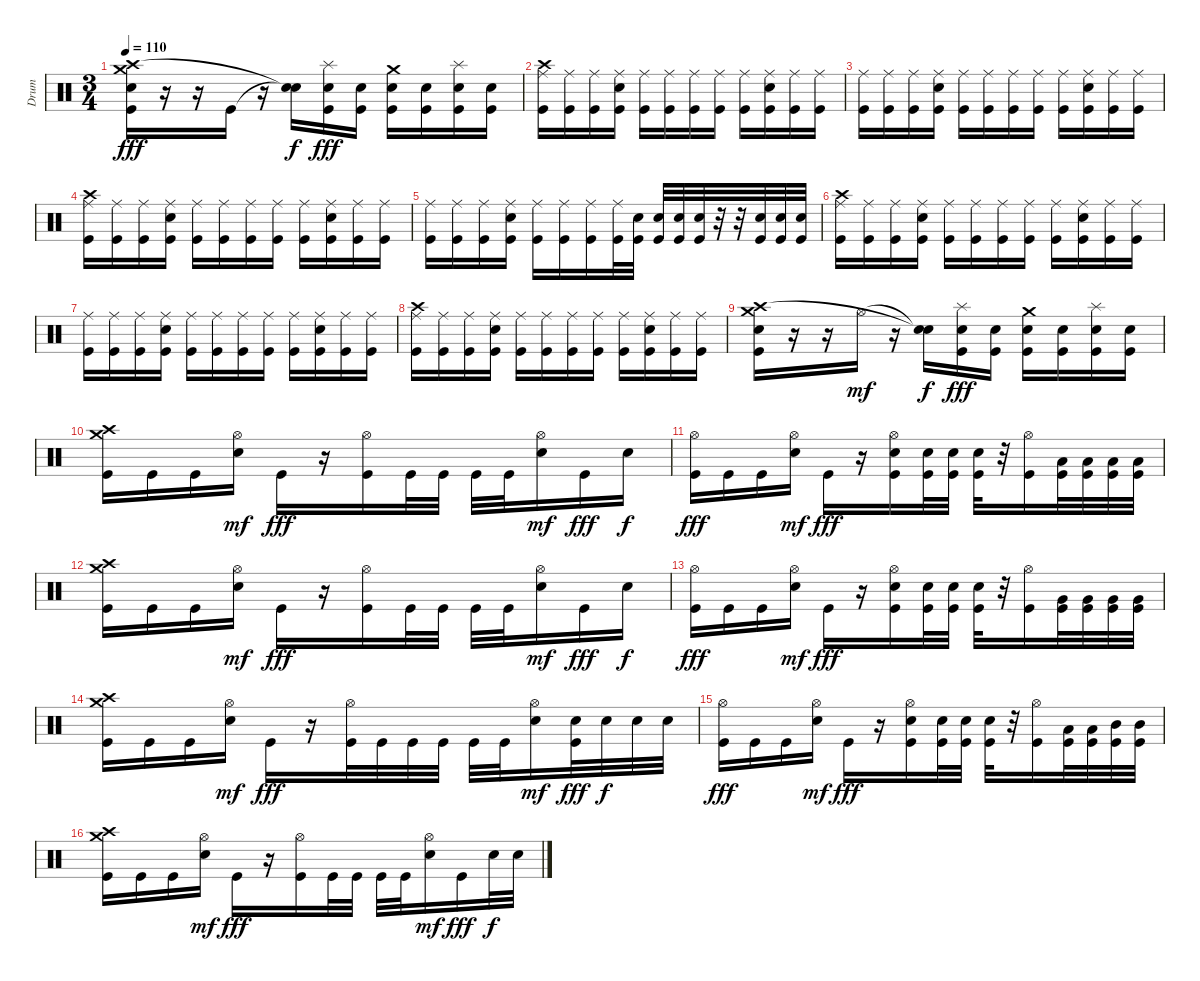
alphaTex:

\track ("Drum" "Drum") {instrument percussion}
\staff {score}
\articulation defaults
\ts (3 4)
\tempo 110
\clef neutral
\ks c
("Crash medium (hit)" "Crash high (hit)" "Electric Snare (hit)" "Kick (hit)").16{dy fff} r.16 r.16 "Kick (hit)".16 r.16 ("Snare (hit)"{t} "Snare (hit)"{t}).16{dy f} ("Splash (hit)" "Electric Snare (hit)" "Kick (hit)").16{dy fff} ("Electric Snare (hit)" "Kick (hit)").16 ("Crash medium (hit)" "Electric Snare (hit)" "Kick (hit)").16 ("Electric Snare (hit)" "Kick (hit)").16 ("Splash (hit)" "Electric Snare (hit)" "Kick (hit)").16 ("Electric Snare (hit)" "Kick (hit)").16 |
("Ride (middle)" "Crash high (hit)" "Kick (hit)").16 ("Ride (middle)" "Kick (hit)").16 ("Ride (middle)" "Kick (hit)").16 ("Ride (middle)" "Electric Snare (hit)" "Kick (hit)").16 ("Ride (middle)" "Kick (hit)").16 ("Ride (middle)" "Kick (hit)").16 ("Ride (middle)" "Kick (hit)").16 ("Ride (middle)" "Kick (hit)").16 ("Ride (middle)" "Kick (hit)").16 ("Ride (middle)" "Electric Snare (hit)" "Kick (hit)").16 ("Ride (middle)" "Kick (hit)").16 ("Ride (middle)" "Kick (hit)").16 |
("Ride (middle)" "Kick (hit)").16 ("Ride (middle)" "Kick (hit)").16 ("Ride (middle)" "Kick (hit)").16 ("Ride (middle)" "Electric Snare (hit)" "Kick (hit)").16 ("Ride (middle)" "Kick (hit)").16 ("Ride (middle)" "Kick (hit)").16 ("Ride (middle)" "Kick (hit)").16 ("Ride (middle)" "Kick (hit)").16 ("Ride (middle)" "Kick (hit)").16 ("Ride (middle)" "Electric Snare (hit)" "Kick (hit)").16 ("Ride (middle)" "Kick (hit)").16 ("Ride (middle)" "Kick (hit)").16 |
("Ride (middle)" "Crash high (hit)" "Kick (hit)").16 ("Ride (middle)" "Kick (hit)").16 ("Ride (middle)" "Kick (hit)").16 ("Ride (middle)" "Electric Snare (hit)" "Kick (hit)").16 ("Ride (middle)" "Kick (hit)").16 ("Ride (middle)" "Kick (hit)").16 ("Ride (middle)" "Kick (hit)").16 ("Ride (middle)" "Kick (hit)").16 ("Ride (middle)" "Kick (hit)").16 ("Ride (middle)" "Electric Snare (hit)" "Kick (hit)").16 ("Ride (middle)" "Kick (hit)").16 ("Ride (middle)" "Kick (hit)").16 |
("Ride (middle)" "Kick (hit)").16 ("Ride (middle)" "Kick (hit)").16 ("Ride (middle)" "Kick (hit)").16 ("Ride (middle)" "Electric Snare (hit)" "Kick (hit)").16 ("Ride (middle)" "Kick (hit)").16 ("Ride (middle)" "Kick (hit)").16 ("Ride (middle)" "Kick (hit)").16 ("Ride (middle)" "Kick (hit)").32 ("Electric Snare (hit)" "Kick (hit)").32 ("Electric Snare (hit)" "Kick (hit)").32 ("Electric Snare (hit)" "Kick (hit)").32 ("Electric Snare (hit)" "Kick (hit)").32 r.32 r.32 ("Electric Snare (hit)" "Kick (hit)").32 ("Electric Snare (hit)" "Kick (hit)").32 ("Electric Snare (hit)" "Kick (hit)").32 |
("Ride (middle)" "Crash high (hit)" "Kick (hit)").16 ("Ride (middle)" "Kick (hit)").16 ("Ride (middle)" "Kick (hit)").16 ("Ride (middle)" "Electric Snare (hit)" "Kick (hit)").16 ("Ride (middle)" "Kick (hit)").16 ("Ride (middle)" "Kick (hit)").16 ("Ride (middle)" "Kick (hit)").16 ("Ride (middle)" "Kick (hit)").16 ("Ride (middle)" "Kick (hit)").16 ("Ride (middle)" "Electric Snare (hit)" "Kick (hit)").16 ("Ride (middle)" "Kick (hit)").16 ("Ride (middle)" "Kick (hit)").16 |
("Ride (middle)" "Kick (hit)").16 ("Ride (middle)" "Kick (hit)").16 ("Ride (middle)" "Kick (hit)").16 ("Ride (middle)" "Electric Snare (hit)" "Kick (hit)").16 ("Ride (middle)" "Kick (hit)").16 ("Ride (middle)" "Kick (hit)").16 ("Ride (middle)" "Kick (hit)").16 ("Ride (middle)" "Kick (hit)").16 ("Ride (middle)" "Kick (hit)").16 ("Ride (middle)" "Electric Snare (hit)" "Kick (hit)").16 ("Ride (middle)" "Kick (hit)").16 ("Ride (middle)" "Kick (hit)").16 |
("Ride (middle)" "Crash high (hit)" "Kick (hit)").16 ("Ride (middle)" "Kick (hit)").16 ("Ride (middle)" "Kick (hit)").16 ("Ride (middle)" "Electric Snare (hit)" "Kick (hit)").16 ("Ride (middle)" "Kick (hit)").16 ("Ride (middle)" "Kick (hit)").16 ("Ride (middle)" "Kick (hit)").16 ("Ride (middle)" "Kick (hit)").16 ("Ride (middle)" "Kick (hit)").16 ("Ride (middle)" "Electric Snare (hit)" "Kick (hit)").16 ("Ride (middle)" "Kick (hit)").16 ("Ride (middle)" "Kick (hit)").16 |
("Crash medium (hit)" "Crash high (hit)" "Electric Snare (hit)" "Kick (hit)").16 r.16 r.16 "Hi-Hat (open)".16{dy mf} r.16 ("Snare (hit)"{t} "Snare (hit)"{t}).16{dy f} ("Splash (hit)" "Electric Snare (hit)" "Kick (hit)").16{dy fff} ("Electric Snare (hit)" "Kick (hit)").16 ("Crash medium (hit)" "Electric Snare (hit)" "Kick (hit)").16 ("Electric Snare (hit)" "Kick (hit)").16 ("Splash (hit)" "Electric Snare (hit)" "Kick (hit)").16 ("Electric Snare (hit)" "Kick (hit)").16 |
("Crash medium (hit)" "Crash high (hit)" "Kick (hit)").16 "Kick (hit)".16 "Kick (hit)".16 ("Hi-Hat (open)" "Electric Snare (hit)").16{dy mf} "Kick (hit)".16{dy fff} r.16 ("Hi-Hat (open)" "Kick (hit)").16 "Kick (hit)".32 "Kick (hit)".32 "Kick (hit)".32 "Kick (hit)".32 ("Hi-Hat (open)" "Electric Snare (hit)").16{dy mf} "Kick (hit)".16{dy fff} "Electric Snare (hit)".16{dy f} |
("Hi-Hat (open)" "Kick (hit)").16{dy fff} "Kick (hit)".16 "Kick (hit)".16 ("Hi-Hat (open)" "Electric Snare (hit)").16{dy mf} "Kick (hit)".16{dy fff} r.16 ("Hi-Hat (open)" "Electric Snare (hit)" "Kick (hit)").16 ("Electric Snare (hit)" "Kick (hit)").32 ("Electric Snare (hit)" "Kick (hit)").32 ("Electric Snare (hit)" "Kick (hit)").32 r.32 ("Hi-Hat (open)" "Kick (hit)").16 ("Low Floor Tom (hit)" "Kick (hit)").32 ("Low Floor Tom (hit)" "Kick (hit)").32 ("Low Floor Tom (hit)" "Kick (hit)").32 ("Low Floor Tom (hit)" "Kick (hit)").32 |
("Crash medium (hit)" "Crash high (hit)" "Kick (hit)").16 "Kick (hit)".16 "Kick (hit)".16 ("Hi-Hat (open)" "Electric Snare (hit)").16{dy mf} "Kick (hit)".16{dy fff} r.16 ("Hi-Hat (open)" "Kick (hit)").16 "Kick (hit)".32 "Kick (hit)".32 "Kick (hit)".32 "Kick (hit)".32 ("Hi-Hat (open)" "Electric Snare (hit)").16{dy mf} "Kick (hit)".16{dy fff} "Electric Snare (hit)".16{dy f} |
("Hi-Hat (open)" "Kick (hit)").16{dy fff} "Kick (hit)".16 "Kick (hit)".16 ("Hi-Hat (open)" "Electric Snare (hit)").16{dy mf} "Kick (hit)".16{dy fff} r.16 ("Hi-Hat (open)" "Electric Snare (hit)" "Kick (hit)").16 ("Electric Snare (hit)" "Kick (hit)").32 ("Electric Snare (hit)" "Kick (hit)").32 ("Electric Snare (hit)" "Kick (hit)").32 r.32 ("Hi-Hat (open)" "Kick (hit)").16 ("Very Low Tom (hit)" "Kick (hit)").32 ("Very Low Tom (hit)" "Kick (hit)").32 ("Very Low Tom (hit)" "Kick (hit)").32 ("Very Low Tom (hit)" "Kick (hit)").32 |
("Crash medium (hit)" "Crash high (hit)" "Kick (hit)").16 "Kick (hit)".16 "Kick (hit)".16 ("Hi-Hat (open)" "Electric Snare (hit)").16{dy mf} "Kick (hit)".16{dy fff} r.16 ("Hi-Hat (open)" "Kick (hit)").32 "Kick (hit)".32 "Kick (hit)".32 "Kick (hit)".32 "Kick (hit)".32 "Kick (hit)".32 ("Hi-Hat (open)" "Electric Snare (hit)").16{dy mf} ("Electric Snare (hit)" "Kick (hit)").32{dy fff} "Electric Snare (hit)".32{dy f} "Electric Snare (hit)".32 "Electric Snare (hit)".32 |
("Hi-Hat (open)" "Kick (hit)").16{dy fff} "Kick (hit)".16 "Kick (hit)".16 ("Hi-Hat (open)" "Electric Snare (hit)").16{dy mf} "Kick (hit)".16{dy fff} r.16 ("Hi-Hat (open)" "Electric Snare (hit)" "Kick (hit)").16 ("Electric Snare (hit)" "Kick (hit)").32 ("Electric Snare (hit)" "Kick (hit)").32 ("Electric Snare (hit)" "Kick (hit)").32 r.32 ("Hi-Hat (open)" "Kick (hit)").16 ("Low Tom (hit)" "Kick (hit)").32 ("Low Tom (hit)" "Kick (hit)").32 ("Mid Tom (hit)" "Kick (hit)").32 ("Mid Tom (hit)" "Kick (hit)").32 |
("Crash medium (hit)" "Crash high (hit)" "Kick (hit)").16 "Kick (hit)".16 "Kick (hit)".16 ("Hi-Hat (open)" "Electric Snare (hit)").16{dy mf} "Kick (hit)".16{dy fff} r.16 ("Hi-Hat (open)" "Kick (hit)").16 "Kick (hit)".32 "Kick (hit)".32 "Kick (hit)".32 "Kick (hit)".32 ("Hi-Hat (open)" "Electric Snare (hit)").16{dy mf} "Kick (hit)".16{dy fff} "Electric Snare (hit)".32{dy f} "Electric Snare (hit)".32
